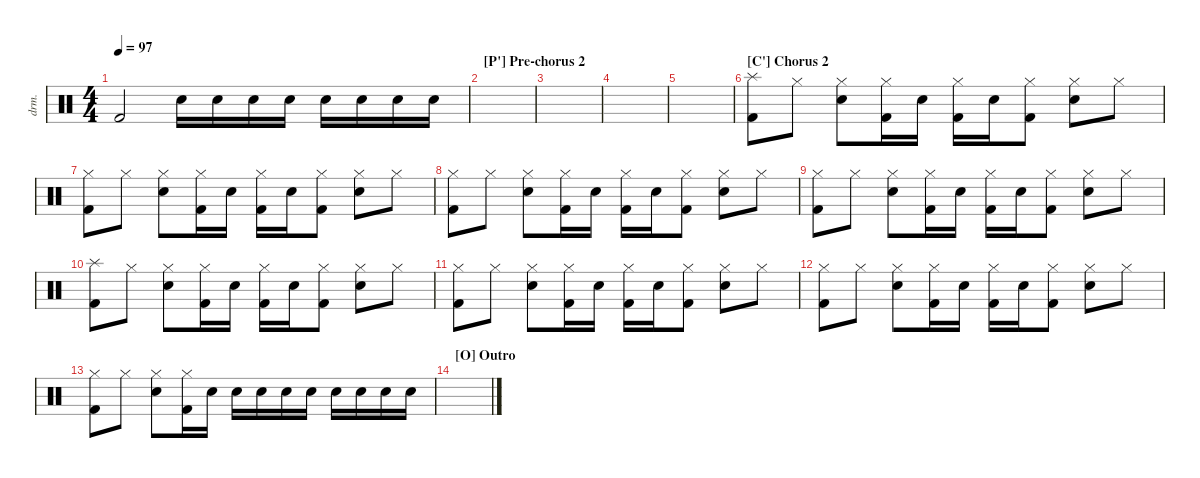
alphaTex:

\defaultSystemsLayout 4
\hideDynamics
\bracketExtendMode nobrackets
\otherSystemsTrackNameOrientation horizontal
\track ("Drumkit" "drm.") {instrument percussion}
\staff {score}
\articulation defaults
\ts (4 4)
\tempo 97
\clef neutral
\ks c "Kick (hit) 2".2{dy mf beam Up} "Snare (hit) 2".16{beam Down} "Snare (hit) 2".16{beam Down} "Snare (hit) 2".16{beam Down} "Snare (hit) 2".16{beam Down} "Snare (hit) 2".16{beam Down} "Snare (hit) 2".16{beam Down} "Snare (hit) 2".16{beam Down} "Snare (hit) 2".16{beam Down}
|
\section ("P'" "Pre-chorus 2")
|
|
|
|
\section ("C'" "Сhorus 2")
("Splash (hit)" "Kick (hit) 2").8{beam Down} "Hi-Hat (closed)".8{beam Down} ("Hi-Hat (closed)" "Snare (hit) 2").8{beam Down} ("Hi-Hat (closed)" "Kick (hit) 2").16{beam Down} "Snare (hit) 2".16{beam Down} ("Hi-Hat (closed)" "Kick (hit) 2").16{beam Down} "Snare (hit) 2".16{beam Down} ("Kick (hit) 2" "Hi-Hat (closed)").8{beam Down} ("Snare (hit) 2" "Hi-Hat (closed)").8{beam Down} "Hi-Hat (closed)".8{beam Down} |
("Kick (hit) 2" "Hi-Hat (closed)").8{beam Down} "Hi-Hat (closed)".8{beam Down} ("Hi-Hat (closed)" "Snare (hit) 2").8{beam Down} ("Hi-Hat (closed)" "Kick (hit) 2").16{beam Down} "Snare (hit) 2".16{beam Down} ("Hi-Hat (closed)" "Kick (hit) 2").16{beam Down} "Snare (hit) 2".16{beam Down} ("Kick (hit) 2" "Hi-Hat (closed)").8{beam Down} ("Snare (hit) 2" "Hi-Hat (closed)").8{beam Down} "Hi-Hat (closed)".8{beam Down} |
("Kick (hit) 2" "Hi-Hat (closed)").8{beam Down} "Hi-Hat (closed)".8{beam Down} ("Hi-Hat (closed)" "Snare (hit) 2").8{beam Down} ("Hi-Hat (closed)" "Kick (hit) 2").16{beam Down} "Snare (hit) 2".16{beam Down} ("Hi-Hat (closed)" "Kick (hit) 2").16{beam Down} "Snare (hit) 2".16{beam Down} ("Kick (hit) 2" "Hi-Hat (closed)").8{beam Down} ("Snare (hit) 2" "Hi-Hat (closed)").8{beam Down} "Hi-Hat (closed)".8{beam Down} |
("Kick (hit) 2" "Hi-Hat (closed)").8{beam Down} "Hi-Hat (closed)".8{beam Down} ("Hi-Hat (closed)" "Snare (hit) 2").8{beam Down} ("Hi-Hat (closed)" "Kick (hit) 2").16{beam Down} "Snare (hit) 2".16{beam Down} ("Hi-Hat (closed)" "Kick (hit) 2").16{beam Down} "Snare (hit) 2".16{beam Down} ("Kick (hit) 2" "Hi-Hat (closed)").8{beam Down} ("Snare (hit) 2" "Hi-Hat (closed)").8{beam Down} "Hi-Hat (closed)".8{beam Down} |
("Splash (hit)" "Kick (hit) 2").8{beam Down} "Hi-Hat (closed)".8{beam Down} ("Hi-Hat (closed)" "Snare (hit) 2").8{beam Down} ("Hi-Hat (closed)" "Kick (hit) 2").16{beam Down} "Snare (hit) 2".16{beam Down} ("Hi-Hat (closed)" "Kick (hit) 2").16{beam Down} "Snare (hit) 2".16{beam Down} ("Kick (hit) 2" "Hi-Hat (closed)").8{beam Down} ("Snare (hit) 2" "Hi-Hat (closed)").8{beam Down} "Hi-Hat (closed)".8{beam Down} |
("Kick (hit) 2" "Hi-Hat (closed)").8{beam Down} "Hi-Hat (closed)".8{beam Down} ("Hi-Hat (closed)" "Snare (hit) 2").8{beam Down} ("Hi-Hat (closed)" "Kick (hit) 2").16{beam Down} "Snare (hit) 2".16{beam Down} ("Hi-Hat (closed)" "Kick (hit) 2").16{beam Down} "Snare (hit) 2".16{beam Down} ("Kick (hit) 2" "Hi-Hat (closed)").8{beam Down} ("Snare (hit) 2" "Hi-Hat (closed)").8{beam Down} "Hi-Hat (closed)".8{beam Down} |
("Kick (hit) 2" "Hi-Hat (closed)").8{beam Down} "Hi-Hat (closed)".8{beam Down} ("Hi-Hat (closed)" "Snare (hit) 2").8{beam Down} ("Hi-Hat (closed)" "Kick (hit) 2").16{beam Down} "Snare (hit) 2".16{beam Down} ("Hi-Hat (closed)" "Kick (hit) 2").16{beam Down} "Snare (hit) 2".16{beam Down} ("Kick (hit) 2" "Hi-Hat (closed)").8{beam Down} ("Snare (hit) 2" "Hi-Hat (closed)").8{beam Down} "Hi-Hat (closed)".8{beam Down} |
("Kick (hit) 2" "Hi-Hat (closed)").8{beam Down} "Hi-Hat (closed)".8{beam Down} ("Hi-Hat (closed)" "Snare (hit) 2").8{beam Down} ("Hi-Hat (closed)" "Kick (hit) 2").16{beam Down} "Snare (hit) 2".16{beam Down} "Snare (hit) 2".16{beam Down} "Snare (hit) 2".16{beam Down} "Snare (hit) 2".16{beam Down} "Snare (hit) 2".16{beam Down} "Snare (hit) 2".16{beam Down} "Snare (hit) 2".16{beam Down} "Snare (hit) 2".16{beam Down} "Snare (hit) 2".16{beam Down} |
\section ("O" "Outro")
